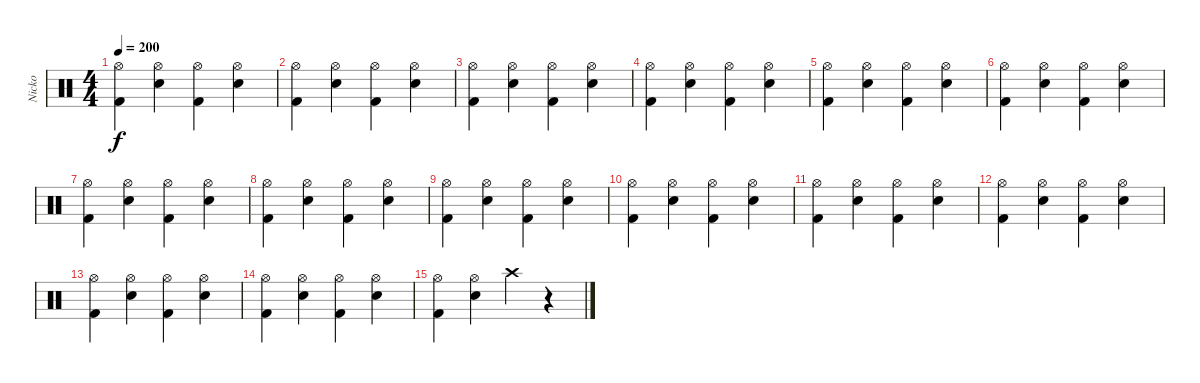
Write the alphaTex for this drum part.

\track ("Nicko" "Nicko") {instrument percussion}
\staff {score}
\articulation defaults
\ts (4 4)
\tempo 200
\clef neutral
\ks c
("Hi-Hat (open)" "Kick (hit) 2").4{dy f} ("Hi-Hat (open)" "Electric Snare (hit)").4 ("Hi-Hat (open)" "Kick (hit) 2").4 ("Hi-Hat (open)" "Electric Snare (hit)").4 |
("Hi-Hat (open)" "Kick (hit) 2").4 ("Hi-Hat (open)" "Electric Snare (hit)").4 ("Hi-Hat (open)" "Kick (hit) 2").4 ("Hi-Hat (open)" "Electric Snare (hit)").4 |
("Hi-Hat (open)" "Kick (hit) 2").4 ("Hi-Hat (open)" "Electric Snare (hit)").4 ("Hi-Hat (open)" "Kick (hit) 2").4 ("Hi-Hat (open)" "Electric Snare (hit)").4 |
("Hi-Hat (open)" "Kick (hit) 2").4 ("Hi-Hat (open)" "Electric Snare (hit)").4 ("Hi-Hat (open)" "Kick (hit) 2").4 ("Hi-Hat (open)" "Electric Snare (hit)").4 |
("Hi-Hat (open)" "Kick (hit) 2").4 ("Hi-Hat (open)" "Electric Snare (hit)").4 ("Hi-Hat (open)" "Kick (hit) 2").4 ("Hi-Hat (open)" "Electric Snare (hit)").4 |
("Hi-Hat (open)" "Kick (hit) 2").4 ("Hi-Hat (open)" "Electric Snare (hit)").4 ("Hi-Hat (open)" "Kick (hit) 2").4 ("Hi-Hat (open)" "Electric Snare (hit)").4 |
("Hi-Hat (open)" "Kick (hit) 2").4 ("Hi-Hat (open)" "Electric Snare (hit)").4 ("Hi-Hat (open)" "Kick (hit) 2").4 ("Hi-Hat (open)" "Electric Snare (hit)").4 |
("Hi-Hat (open)" "Kick (hit) 2").4 ("Hi-Hat (open)" "Electric Snare (hit)").4 ("Hi-Hat (open)" "Kick (hit) 2").4 ("Hi-Hat (open)" "Electric Snare (hit)").4 |
("Hi-Hat (open)" "Kick (hit) 2").4 ("Hi-Hat (open)" "Electric Snare (hit)").4 ("Hi-Hat (open)" "Kick (hit) 2").4 ("Hi-Hat (open)" "Electric Snare (hit)").4 |
("Hi-Hat (open)" "Kick (hit) 2").4 ("Hi-Hat (open)" "Electric Snare (hit)").4 ("Hi-Hat (open)" "Kick (hit) 2").4 ("Hi-Hat (open)" "Electric Snare (hit)").4 |
("Hi-Hat (open)" "Kick (hit) 2").4 ("Hi-Hat (open)" "Electric Snare (hit)").4 ("Hi-Hat (open)" "Kick (hit) 2").4 ("Hi-Hat (open)" "Electric Snare (hit)").4 |
("Hi-Hat (open)" "Kick (hit) 2").4 ("Hi-Hat (open)" "Electric Snare (hit)").4 ("Hi-Hat (open)" "Kick (hit) 2").4 ("Hi-Hat (open)" "Electric Snare (hit)").4 |
("Hi-Hat (open)" "Kick (hit) 2").4 ("Hi-Hat (open)" "Electric Snare (hit)").4 ("Hi-Hat (open)" "Kick (hit) 2").4 ("Hi-Hat (open)" "Electric Snare (hit)").4 |
("Hi-Hat (open)" "Kick (hit) 2").4 ("Hi-Hat (open)" "Electric Snare (hit)").4 ("Hi-Hat (open)" "Kick (hit) 2").4 ("Hi-Hat (open)" "Electric Snare (hit)").4 |
("Hi-Hat (open)" "Kick (hit) 2").4 ("Hi-Hat (open)" "Electric Snare (hit)").4 "Crash high (hit)".4 r.4
